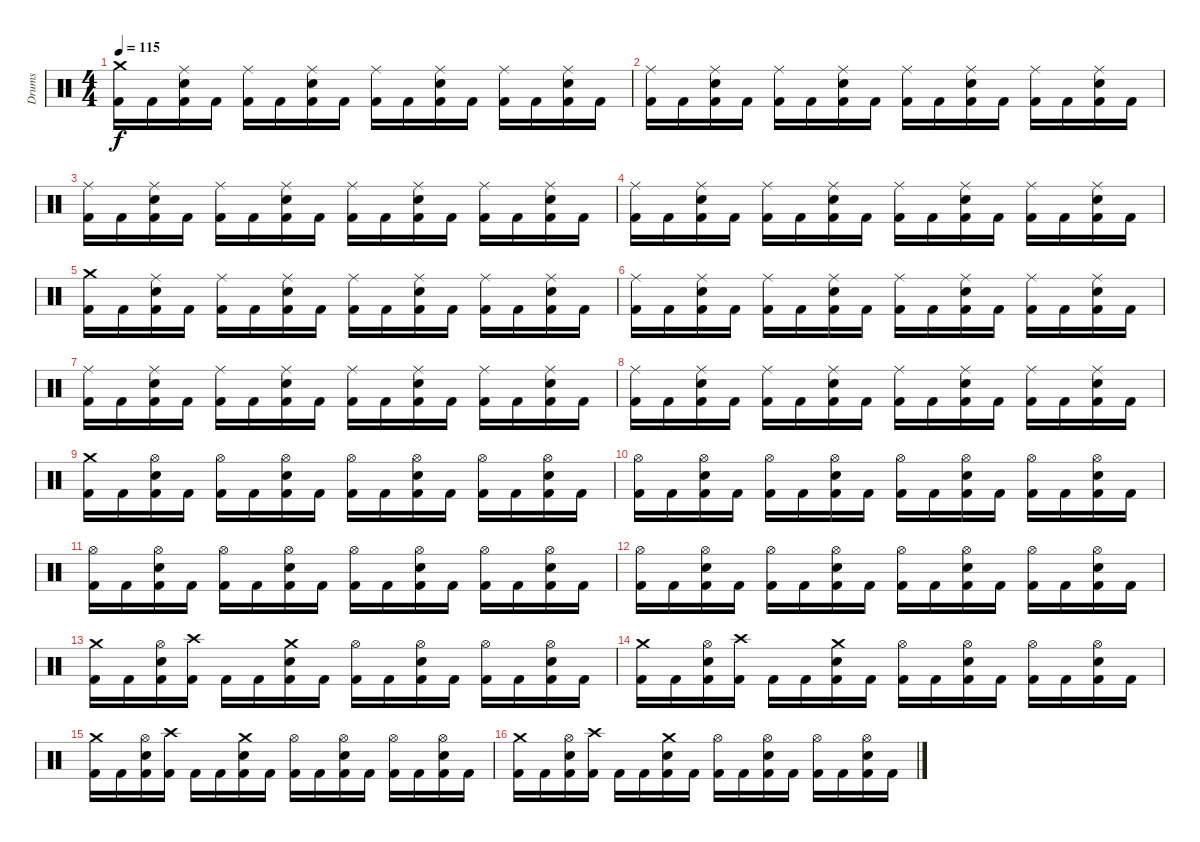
\track ("Drums" "Drums") {instrument percussion}
\staff {score}
\articulation defaults
\ts (4 4)
\tempo 115
\clef neutral
\ks c
("Crash medium (hit)" "Kick (hit) 2").16{dy f} "Kick (hit) 2".16 ("Ride (middle)" "Electric Snare (hit)" "Kick (hit) 2").16 "Kick (hit) 2".16 ("Ride (middle)" "Kick (hit) 2").16 "Kick (hit) 2".16 ("Ride (middle)" "Electric Snare (hit)" "Kick (hit) 2").16 "Kick (hit) 2".16 ("Ride (middle)" "Kick (hit) 2").16 "Kick (hit) 2".16 ("Ride (middle)" "Electric Snare (hit)" "Kick (hit) 2").16 "Kick (hit) 2".16 ("Ride (middle)" "Kick (hit) 2").16 "Kick (hit) 2".16 ("Ride (middle)" "Electric Snare (hit)" "Kick (hit) 2").16 "Kick (hit) 2".16 |
("Ride (middle)" "Kick (hit) 2").16 "Kick (hit) 2".16 ("Ride (middle)" "Electric Snare (hit)" "Kick (hit) 2").16 "Kick (hit) 2".16 ("Ride (middle)" "Kick (hit) 2").16 "Kick (hit) 2".16 ("Ride (middle)" "Electric Snare (hit)" "Kick (hit) 2").16 "Kick (hit) 2".16 ("Ride (middle)" "Kick (hit) 2").16 "Kick (hit) 2".16 ("Ride (middle)" "Electric Snare (hit)" "Kick (hit) 2").16 "Kick (hit) 2".16 ("Ride (middle)" "Kick (hit) 2").16 "Kick (hit) 2".16 ("Ride (middle)" "Electric Snare (hit)" "Kick (hit) 2").16 "Kick (hit) 2".16 |
("Ride (middle)" "Kick (hit) 2").16 "Kick (hit) 2".16 ("Ride (middle)" "Electric Snare (hit)" "Kick (hit) 2").16 "Kick (hit) 2".16 ("Ride (middle)" "Kick (hit) 2").16 "Kick (hit) 2".16 ("Ride (middle)" "Electric Snare (hit)" "Kick (hit) 2").16 "Kick (hit) 2".16 ("Ride (middle)" "Kick (hit) 2").16 "Kick (hit) 2".16 ("Ride (middle)" "Electric Snare (hit)" "Kick (hit) 2").16 "Kick (hit) 2".16 ("Ride (middle)" "Kick (hit) 2").16 "Kick (hit) 2".16 ("Ride (middle)" "Electric Snare (hit)" "Kick (hit) 2").16 "Kick (hit) 2".16 |
("Ride (middle)" "Kick (hit) 2").16 "Kick (hit) 2".16 ("Ride (middle)" "Electric Snare (hit)" "Kick (hit) 2").16 "Kick (hit) 2".16 ("Ride (middle)" "Kick (hit) 2").16 "Kick (hit) 2".16 ("Ride (middle)" "Electric Snare (hit)" "Kick (hit) 2").16 "Kick (hit) 2".16 ("Ride (middle)" "Kick (hit) 2").16 "Kick (hit) 2".16 ("Ride (middle)" "Electric Snare (hit)" "Kick (hit) 2").16 "Kick (hit) 2".16 ("Ride (middle)" "Kick (hit) 2").16 "Kick (hit) 2".16 ("Ride (middle)" "Electric Snare (hit)" "Kick (hit) 2").16 "Kick (hit) 2".16 |
("Crash medium (hit)" "Kick (hit) 2").16 "Kick (hit) 2".16 ("Ride (middle)" "Electric Snare (hit)" "Kick (hit) 2").16 "Kick (hit) 2".16 ("Ride (middle)" "Kick (hit) 2").16 "Kick (hit) 2".16 ("Ride (middle)" "Electric Snare (hit)" "Kick (hit) 2").16 "Kick (hit) 2".16 ("Ride (middle)" "Kick (hit) 2").16 "Kick (hit) 2".16 ("Ride (middle)" "Electric Snare (hit)" "Kick (hit) 2").16 "Kick (hit) 2".16 ("Ride (middle)" "Kick (hit) 2").16 "Kick (hit) 2".16 ("Ride (middle)" "Electric Snare (hit)" "Kick (hit) 2").16 "Kick (hit) 2".16 |
("Ride (middle)" "Kick (hit) 2").16 "Kick (hit) 2".16 ("Ride (middle)" "Electric Snare (hit)" "Kick (hit) 2").16 "Kick (hit) 2".16 ("Ride (middle)" "Kick (hit) 2").16 "Kick (hit) 2".16 ("Ride (middle)" "Electric Snare (hit)" "Kick (hit) 2").16 "Kick (hit) 2".16 ("Ride (middle)" "Kick (hit) 2").16 "Kick (hit) 2".16 ("Ride (middle)" "Electric Snare (hit)" "Kick (hit) 2").16 "Kick (hit) 2".16 ("Ride (middle)" "Kick (hit) 2").16 "Kick (hit) 2".16 ("Ride (middle)" "Electric Snare (hit)" "Kick (hit) 2").16 "Kick (hit) 2".16 |
("Ride (middle)" "Kick (hit) 2").16 "Kick (hit) 2".16 ("Ride (middle)" "Electric Snare (hit)" "Kick (hit) 2").16 "Kick (hit) 2".16 ("Ride (middle)" "Kick (hit) 2").16 "Kick (hit) 2".16 ("Ride (middle)" "Electric Snare (hit)" "Kick (hit) 2").16 "Kick (hit) 2".16 ("Ride (middle)" "Kick (hit) 2").16 "Kick (hit) 2".16 ("Ride (middle)" "Electric Snare (hit)" "Kick (hit) 2").16 "Kick (hit) 2".16 ("Ride (middle)" "Kick (hit) 2").16 "Kick (hit) 2".16 ("Ride (middle)" "Electric Snare (hit)" "Kick (hit) 2").16 "Kick (hit) 2".16 |
("Ride (middle)" "Kick (hit) 2").16 "Kick (hit) 2".16 ("Ride (middle)" "Electric Snare (hit)" "Kick (hit) 2").16 "Kick (hit) 2".16 ("Ride (middle)" "Kick (hit) 2").16 "Kick (hit) 2".16 ("Ride (middle)" "Electric Snare (hit)" "Kick (hit) 2").16 "Kick (hit) 2".16 ("Ride (middle)" "Kick (hit) 2").16 "Kick (hit) 2".16 ("Ride (middle)" "Electric Snare (hit)" "Kick (hit) 2").16 "Kick (hit) 2".16 ("Ride (middle)" "Kick (hit) 2").16 "Kick (hit) 2".16 ("Ride (middle)" "Electric Snare (hit)" "Kick (hit) 2").16 "Kick (hit) 2".16 |
("Crash medium (hit)" "Kick (hit) 2").16 "Kick (hit) 2".16 ("Hi-Hat (open)" "Electric Snare (hit)" "Kick (hit) 2").16 "Kick (hit) 2".16 ("Hi-Hat (open)" "Kick (hit) 2").16 "Kick (hit) 2".16 ("Hi-Hat (open)" "Electric Snare (hit)" "Kick (hit) 2").16 "Kick (hit) 2".16 ("Hi-Hat (open)" "Kick (hit) 2").16 "Kick (hit) 2".16 ("Hi-Hat (open)" "Electric Snare (hit)" "Kick (hit) 2").16 "Kick (hit) 2".16 ("Hi-Hat (open)" "Kick (hit) 2").16 "Kick (hit) 2".16 ("Hi-Hat (open)" "Electric Snare (hit)" "Kick (hit) 2").16 "Kick (hit) 2".16 |
("Hi-Hat (open)" "Kick (hit) 2").16 "Kick (hit) 2".16 ("Hi-Hat (open)" "Electric Snare (hit)" "Kick (hit) 2").16 "Kick (hit) 2".16 ("Hi-Hat (open)" "Kick (hit) 2").16 "Kick (hit) 2".16 ("Hi-Hat (open)" "Electric Snare (hit)" "Kick (hit) 2").16 "Kick (hit) 2".16 ("Hi-Hat (open)" "Kick (hit) 2").16 "Kick (hit) 2".16 ("Hi-Hat (open)" "Electric Snare (hit)" "Kick (hit) 2").16 "Kick (hit) 2".16 ("Hi-Hat (open)" "Kick (hit) 2").16 "Kick (hit) 2".16 ("Hi-Hat (open)" "Electric Snare (hit)" "Kick (hit) 2").16 "Kick (hit) 2".16 |
("Hi-Hat (open)" "Kick (hit) 2").16 "Kick (hit) 2".16 ("Hi-Hat (open)" "Electric Snare (hit)" "Kick (hit) 2").16 "Kick (hit) 2".16 ("Hi-Hat (open)" "Kick (hit) 2").16 "Kick (hit) 2".16 ("Hi-Hat (open)" "Electric Snare (hit)" "Kick (hit) 2").16 "Kick (hit) 2".16 ("Hi-Hat (open)" "Kick (hit) 2").16 "Kick (hit) 2".16 ("Hi-Hat (open)" "Electric Snare (hit)" "Kick (hit) 2").16 "Kick (hit) 2".16 ("Hi-Hat (open)" "Kick (hit) 2").16 "Kick (hit) 2".16 ("Hi-Hat (open)" "Electric Snare (hit)" "Kick (hit) 2").16 "Kick (hit) 2".16 |
("Hi-Hat (open)" "Kick (hit) 2").16 "Kick (hit) 2".16 ("Hi-Hat (open)" "Electric Snare (hit)" "Kick (hit) 2").16 "Kick (hit) 2".16 ("Hi-Hat (open)" "Kick (hit) 2").16 "Kick (hit) 2".16 ("Hi-Hat (open)" "Electric Snare (hit)" "Kick (hit) 2").16 "Kick (hit) 2".16 ("Hi-Hat (open)" "Kick (hit) 2").16 "Kick (hit) 2".16 ("Hi-Hat (open)" "Electric Snare (hit)" "Kick (hit) 2").16 "Kick (hit) 2".16 ("Hi-Hat (open)" "Kick (hit) 2").16 "Kick (hit) 2".16 ("Hi-Hat (open)" "Electric Snare (hit)" "Kick (hit) 2").16 "Kick (hit) 2".16 |
("Crash medium (hit)" "Kick (hit) 2").16 "Kick (hit) 2".16 ("Hi-Hat (open)" "Electric Snare (hit)" "Kick (hit) 2").16 ("Crash high (hit)" "Kick (hit) 2").16 "Kick (hit) 2".16 "Kick (hit) 2".16 ("Crash medium (hit)" "Electric Snare (hit)" "Kick (hit) 2").16 "Kick (hit) 2".16 ("Hi-Hat (open)" "Kick (hit) 2").16 "Kick (hit) 2".16 ("Hi-Hat (open)" "Electric Snare (hit)" "Kick (hit) 2").16 "Kick (hit) 2".16 ("Hi-Hat (open)" "Kick (hit) 2").16 "Kick (hit) 2".16 ("Hi-Hat (open)" "Electric Snare (hit)" "Kick (hit) 2").16 "Kick (hit) 2".16 |
("Crash medium (hit)" "Kick (hit) 2").16 "Kick (hit) 2".16 ("Hi-Hat (open)" "Electric Snare (hit)" "Kick (hit) 2").16 ("Crash high (hit)" "Kick (hit) 2").16 "Kick (hit) 2".16 "Kick (hit) 2".16 ("Crash medium (hit)" "Electric Snare (hit)" "Kick (hit) 2").16 "Kick (hit) 2".16 ("Hi-Hat (open)" "Kick (hit) 2").16 "Kick (hit) 2".16 ("Hi-Hat (open)" "Electric Snare (hit)" "Kick (hit) 2").16 "Kick (hit) 2".16 ("Hi-Hat (open)" "Kick (hit) 2").16 "Kick (hit) 2".16 ("Hi-Hat (open)" "Electric Snare (hit)" "Kick (hit) 2").16 "Kick (hit) 2".16 |
("Crash medium (hit)" "Kick (hit) 2").16 "Kick (hit) 2".16 ("Hi-Hat (open)" "Electric Snare (hit)" "Kick (hit) 2").16 ("Crash high (hit)" "Kick (hit) 2").16 "Kick (hit) 2".16 "Kick (hit) 2".16 ("Crash medium (hit)" "Electric Snare (hit)" "Kick (hit) 2").16 "Kick (hit) 2".16 ("Hi-Hat (open)" "Kick (hit) 2").16 "Kick (hit) 2".16 ("Hi-Hat (open)" "Electric Snare (hit)" "Kick (hit) 2").16 "Kick (hit) 2".16 ("Hi-Hat (open)" "Kick (hit) 2").16 "Kick (hit) 2".16 ("Hi-Hat (open)" "Electric Snare (hit)" "Kick (hit) 2").16 "Kick (hit) 2".16 |
("Crash medium (hit)" "Kick (hit) 2").16 "Kick (hit) 2".16 ("Hi-Hat (open)" "Electric Snare (hit)" "Kick (hit) 2").16 ("Crash high (hit)" "Kick (hit) 2").16 "Kick (hit) 2".16 "Kick (hit) 2".16 ("Crash medium (hit)" "Electric Snare (hit)" "Kick (hit) 2").16 "Kick (hit) 2".16 ("Hi-Hat (open)" "Kick (hit) 2").16 "Kick (hit) 2".16 ("Hi-Hat (open)" "Electric Snare (hit)" "Kick (hit) 2").16 "Kick (hit) 2".16 ("Hi-Hat (open)" "Kick (hit) 2").16 "Kick (hit) 2".16 ("Hi-Hat (open)" "Electric Snare (hit)" "Kick (hit) 2").16 "Kick (hit) 2".16
